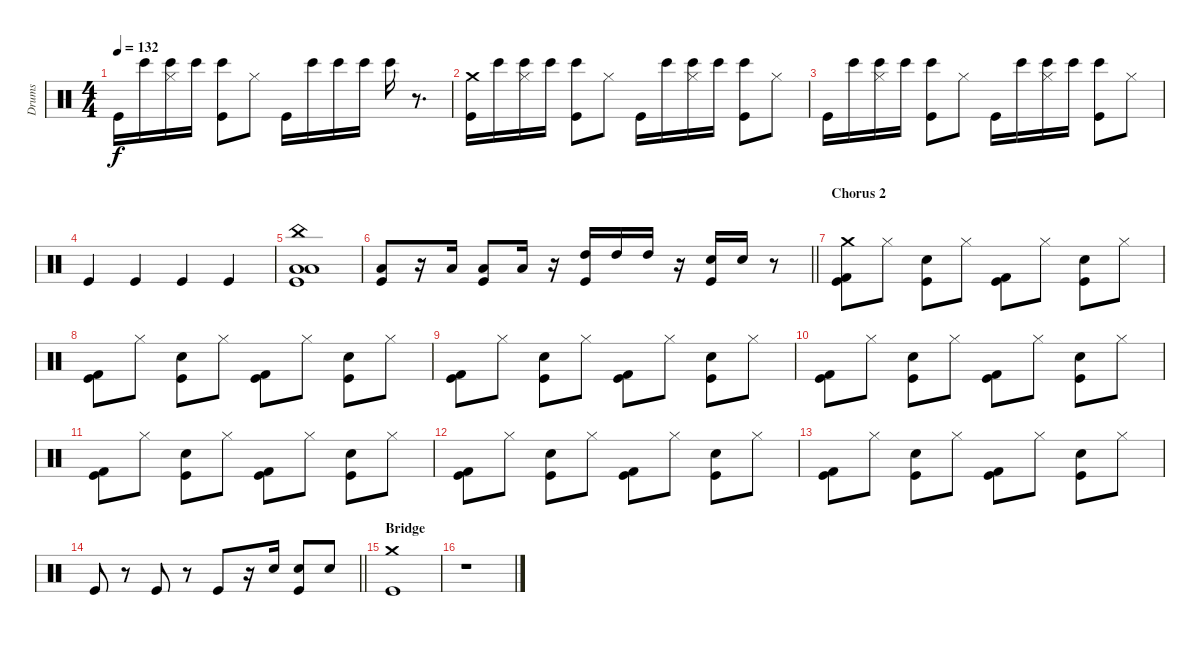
\track ("Drums" "Drums") {instrument percussion}
\staff {score}
\articulation defaults
\ts (4 4)
\tempo 132
\clef neutral
\ks c "Kick (hit)".16{dy f} "Bongo High (hit)".16
("Bongo High (hit)" "Hi-Hat (closed)").16 "Bongo High (hit)".16 ("Bongo High (hit)" "Kick (hit)").8 "Hi-Hat (closed)".8 "Kick (hit)".16 "Bongo High (hit)".16 "Bongo High (hit)".16 "Bongo High (hit)".16 "Bongo High (hit)".16 r.8{d} |
("Crash medium (hit)" "Kick (hit)").16 "Bongo High (hit)".16 ("Bongo High (hit)" "Hi-Hat (closed)").16 "Bongo High (hit)".16 ("Bongo High (hit)" "Kick (hit)").8 "Hi-Hat (closed)".8 "Kick (hit)".16 "Bongo High (hit)".16 ("Hi-Hat (closed)" "Bongo High (hit)").16 "Bongo High (hit)".16 ("Bongo High (hit)" "Kick (hit)").8 "Hi-Hat (closed)".8 |
"Kick (hit)".16 "Bongo High (hit)".16 ("Bongo High (hit)" "Hi-Hat (closed)").16 "Bongo High (hit)".16 ("Bongo High (hit)" "Kick (hit)").8 "Hi-Hat (closed)".8 "Kick (hit)".16 "Bongo High (hit)".16 ("Hi-Hat (closed)" "Bongo High (hit)").16 "Bongo High (hit)".16 ("Bongo High (hit)" "Kick (hit)").8 "Hi-Hat (closed)".8 |
"Kick (hit)".4 "Kick (hit)".4 "Kick (hit)".4 "Kick (hit)".4 |
("Low Tom (hit)" "Kick (hit)" "China (hit)" "Low Floor Tom (hit)").1 |
\barLineRight lightlight
("Low Floor Tom (hit)" "Kick (hit)").8 r.16 "Low Tom (hit)".16 ("Low Tom (hit)" "Kick (hit)").8 "Low Tom (hit)".16 r.16 ("High Tom (hit)" "Kick (hit)").16 "High Tom (hit)".16 "High Tom (hit)".16 r.16 ("Snare (hit) 2" "Kick (hit)").16 "Snare (hit) 2".16 r.8 |
\section ("" "Chorus 2")
("Crash medium (hit)" "Kick (hit)" "Kick (hit) 2").8 "Hi-Hat (closed)".8 ("Hand Clap (hit)" "Kick (hit)").8 "Hi-Hat (closed)".8 ("Kick (hit) 2" "Kick (hit)").8 "Hi-Hat (closed)".8 ("Kick (hit)" "Hand Clap (hit)").8 "Hi-Hat (closed)".8 |
("Kick (hit) 2" "Kick (hit)").8 "Hi-Hat (closed)".8 ("Kick (hit)" "Hand Clap (hit)").8 "Hi-Hat (closed)".8 ("Kick (hit)" "Kick (hit) 2").8 "Hi-Hat (closed)".8 ("Kick (hit)" "Hand Clap (hit)").8 "Hi-Hat (closed)".8 |
("Kick (hit)" "Kick (hit) 2").8 "Hi-Hat (closed)".8 ("Hand Clap (hit)" "Kick (hit)").8 "Hi-Hat (closed)".8 ("Kick (hit)" "Kick (hit) 2").8 "Hi-Hat (closed)".8 ("Kick (hit)" "Hand Clap (hit)").8 "Hi-Hat (closed)".8 |
("Kick (hit)" "Kick (hit) 2").8 "Hi-Hat (closed)".8 ("Hand Clap (hit)" "Kick (hit)").8 "Hi-Hat (closed)".8 ("Kick (hit)" "Kick (hit) 2").8 "Hi-Hat (closed)".8 ("Kick (hit)" "Hand Clap (hit)").8 "Hi-Hat (closed)".8 |
("Kick (hit)" "Kick (hit) 2").8 "Hi-Hat (closed)".8 ("Hand Clap (hit)" "Kick (hit)").8 "Hi-Hat (closed)".8 ("Kick (hit) 2" "Kick (hit)").8 "Hi-Hat (closed)".8 ("Kick (hit)" "Hand Clap (hit)").8 "Hi-Hat (closed)".8 |
("Kick (hit) 2" "Kick (hit)").8 "Hi-Hat (closed)".8 ("Kick (hit)" "Hand Clap (hit)").8 "Hi-Hat (closed)".8 ("Kick (hit)" "Kick (hit) 2").8 "Hi-Hat (closed)".8 ("Kick (hit)" "Hand Clap (hit)").8 "Hi-Hat (closed)".8 |
("Kick (hit)" "Kick (hit) 2").8 "Hi-Hat (closed)".8 ("Hand Clap (hit)" "Kick (hit)").8 "Hi-Hat (closed)".8 ("Kick (hit)" "Kick (hit) 2").8 "Hi-Hat (closed)".8 ("Kick (hit)" "Hand Clap (hit)").8 "Hi-Hat (closed)".8 |
\barLineRight lightlight "Kick (hit)".8
r.8 "Kick (hit)".8 r.8 "Kick (hit)".8 r.16 "Snare (hit) 2".16 ("Snare (hit) 2" "Kick (hit)").8 "Snare (hit) 2".8 |
\section ("" "Bridge")
("Kick (hit)" "Crash medium (hit)").1 |
r.1
